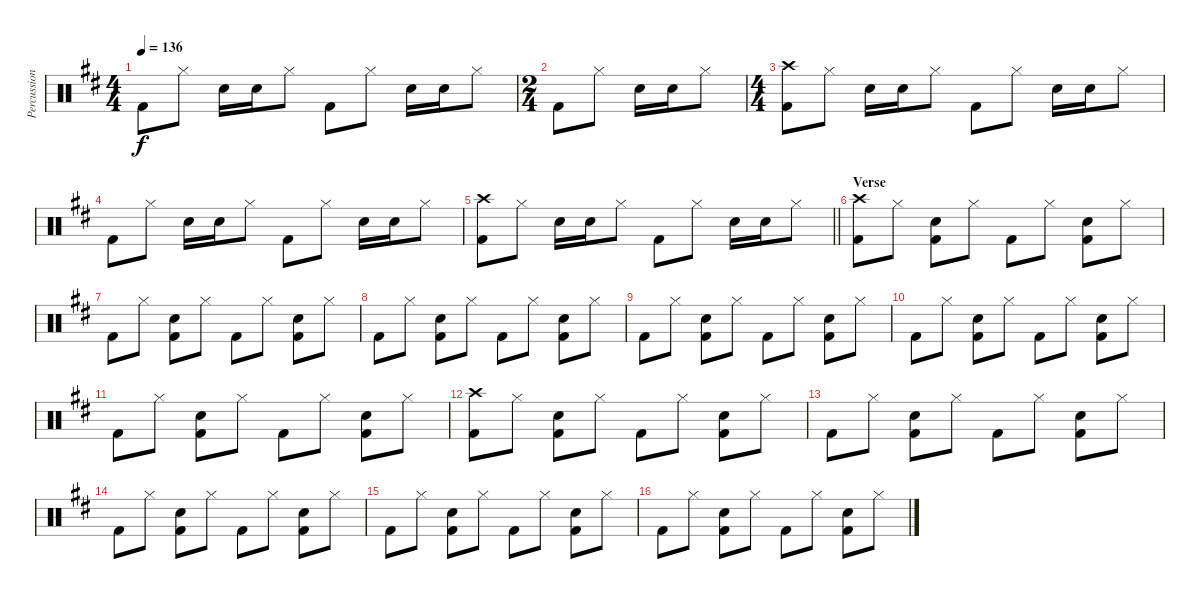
\track ("Percussion" "Percussion") {instrument percussion}
\staff {score}
\articulation defaults
\ts (4 4)
\tempo 136
\clef neutral
\ks d "Kick (hit) 2".8{dy f} "Hi-Hat (closed)".8 "Electric Snare (hit)".16 "Electric Snare (hit)".16 "Hi-Hat (closed)".8 "Kick (hit) 2".8 "Hi-Hat (closed)".8 "Electric Snare (hit)".16 "Electric Snare (hit)".16 "Hi-Hat (closed)".8
|
\ts (2 4)
"Kick (hit) 2".8 "Hi-Hat (closed)".8 "Electric Snare (hit)".16 "Electric Snare (hit)".16 "Hi-Hat (closed)".8 |
\ts (4 4)
("Crash high (hit)" "Kick (hit) 2").8 "Hi-Hat (closed)".8 "Electric Snare (hit)".16 "Electric Snare (hit)".16 "Hi-Hat (closed)".8 "Kick (hit) 2".8 "Hi-Hat (closed)".8 "Electric Snare (hit)".16 "Electric Snare (hit)".16 "Hi-Hat (closed)".8 |
"Kick (hit) 2".8 "Hi-Hat (closed)".8 "Electric Snare (hit)".16 "Electric Snare (hit)".16 "Hi-Hat (closed)".8 "Kick (hit) 2".8 "Hi-Hat (closed)".8 "Electric Snare (hit)".16 "Electric Snare (hit)".16 "Hi-Hat (closed)".8 |
\barLineRight lightlight
("Crash high (hit)" "Kick (hit) 2").8 "Hi-Hat (closed)".8 "Electric Snare (hit)".16 "Electric Snare (hit)".16 "Hi-Hat (closed)".8 "Kick (hit) 2".8 "Hi-Hat (closed)".8 "Electric Snare (hit)".16 "Electric Snare (hit)".16 "Hi-Hat (closed)".8 |
\section ("" "Verse")
("Crash high (hit)" "Kick (hit) 2").8 "Hi-Hat (closed)".8 ("Electric Snare (hit)" "Kick (hit) 2").8 "Hi-Hat (closed)".8 "Kick (hit) 2".8 "Hi-Hat (closed)".8 ("Electric Snare (hit)" "Kick (hit) 2").8 "Hi-Hat (closed)".8 |
"Kick (hit) 2".8 "Hi-Hat (closed)".8 ("Electric Snare (hit)" "Kick (hit) 2").8 "Hi-Hat (closed)".8 "Kick (hit) 2".8 "Hi-Hat (closed)".8 ("Electric Snare (hit)" "Kick (hit) 2").8 "Hi-Hat (closed)".8 |
"Kick (hit) 2".8 "Hi-Hat (closed)".8 ("Electric Snare (hit)" "Kick (hit) 2").8 "Hi-Hat (closed)".8 "Kick (hit) 2".8 "Hi-Hat (closed)".8 ("Electric Snare (hit)" "Kick (hit) 2").8 "Hi-Hat (closed)".8 |
"Kick (hit) 2".8 "Hi-Hat (closed)".8 ("Electric Snare (hit)" "Kick (hit) 2").8 "Hi-Hat (closed)".8 "Kick (hit) 2".8 "Hi-Hat (closed)".8 ("Electric Snare (hit)" "Kick (hit) 2").8 "Hi-Hat (closed)".8 |
"Kick (hit) 2".8 "Hi-Hat (closed)".8 ("Electric Snare (hit)" "Kick (hit) 2").8 "Hi-Hat (closed)".8 "Kick (hit) 2".8 "Hi-Hat (closed)".8 ("Electric Snare (hit)" "Kick (hit) 2").8 "Hi-Hat (closed)".8 |
"Kick (hit) 2".8 "Hi-Hat (closed)".8 ("Electric Snare (hit)" "Kick (hit) 2").8 "Hi-Hat (closed)".8 "Kick (hit) 2".8 "Hi-Hat (closed)".8 ("Electric Snare (hit)" "Kick (hit) 2").8 "Hi-Hat (closed)".8 |
("Crash high (hit)" "Kick (hit) 2").8 "Hi-Hat (closed)".8 ("Electric Snare (hit)" "Kick (hit) 2").8 "Hi-Hat (closed)".8 "Kick (hit) 2".8 "Hi-Hat (closed)".8 ("Electric Snare (hit)" "Kick (hit) 2").8 "Hi-Hat (closed)".8 |
"Kick (hit) 2".8 "Hi-Hat (closed)".8 ("Electric Snare (hit)" "Kick (hit) 2").8 "Hi-Hat (closed)".8 "Kick (hit) 2".8 "Hi-Hat (closed)".8 ("Electric Snare (hit)" "Kick (hit) 2").8 "Hi-Hat (closed)".8 |
"Kick (hit) 2".8 "Hi-Hat (closed)".8 ("Electric Snare (hit)" "Kick (hit) 2").8 "Hi-Hat (closed)".8 "Kick (hit) 2".8 "Hi-Hat (closed)".8 ("Electric Snare (hit)" "Kick (hit) 2").8 "Hi-Hat (closed)".8 |
"Kick (hit) 2".8 "Hi-Hat (closed)".8 ("Electric Snare (hit)" "Kick (hit) 2").8 "Hi-Hat (closed)".8 "Kick (hit) 2".8 "Hi-Hat (closed)".8 ("Electric Snare (hit)" "Kick (hit) 2").8 "Hi-Hat (closed)".8 |
"Kick (hit) 2".8 "Hi-Hat (closed)".8 ("Electric Snare (hit)" "Kick (hit) 2").8 "Hi-Hat (closed)".8 "Kick (hit) 2".8 "Hi-Hat (closed)".8 ("Electric Snare (hit)" "Kick (hit) 2").8 "Hi-Hat (closed)".8
